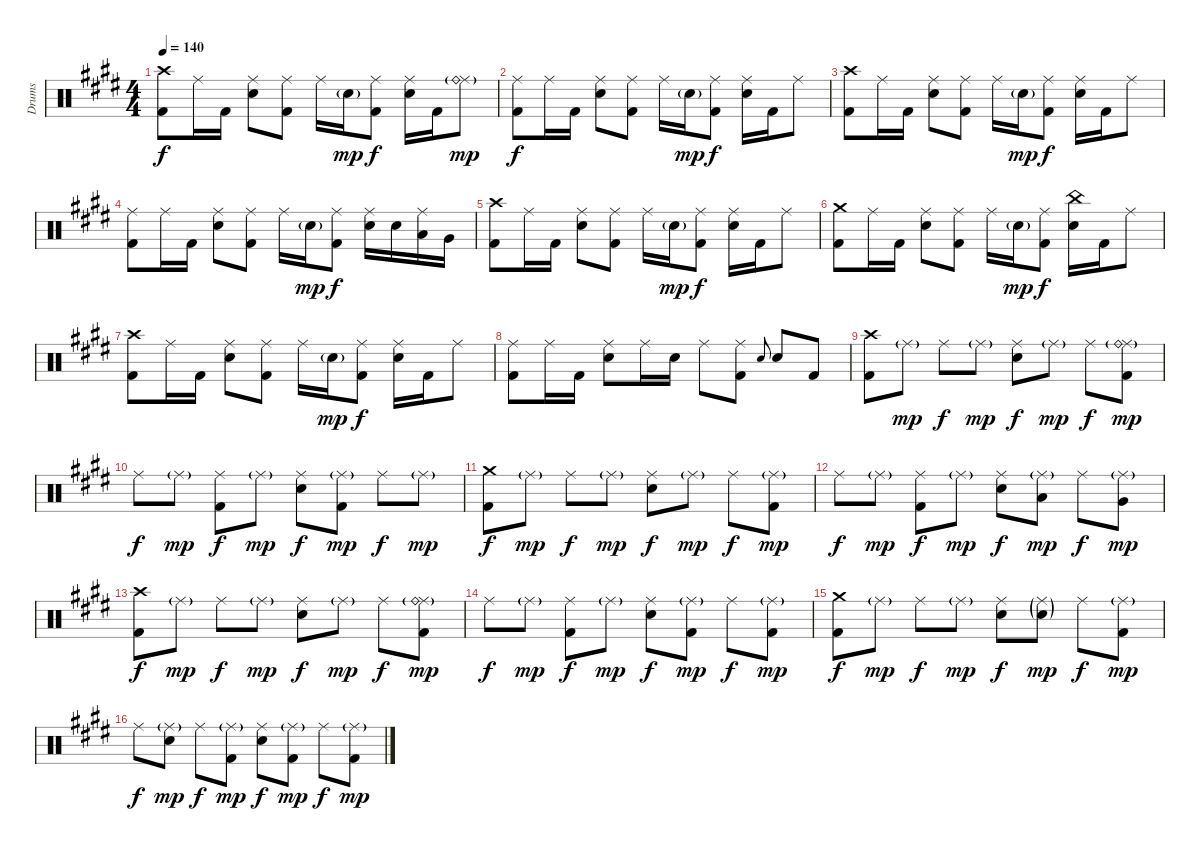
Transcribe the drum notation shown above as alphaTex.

\track ("Drums" "Drums") {instrument percussion}
\staff {score}
\articulation defaults
\ts (4 4)
\tempo 140
\clef neutral
\ks e
("Crash high (hit)" "Kick (hit) 2").8{dy f} "Ride (middle)".16 "Kick (hit) 2".16 ("Ride (middle)" "Snare (hit) 2").8 ("Ride (middle)" "Kick (hit) 2").8 "Ride (middle)".16 "Snare (hit) 2"{g}.16{dy mp} ("Ride (middle)" "Kick (hit) 2").8{dy f} ("Ride (middle)" "Snare (hit) 2").16 "Kick (hit) 2".16 ("Ride (middle)" "Ride (bell)"{g}).8{dy mp} |
("Ride (middle)" "Kick (hit) 2").8{dy f} "Ride (middle)".16 "Kick (hit) 2".16 ("Ride (middle)" "Snare (hit) 2").8 ("Ride (middle)" "Kick (hit) 2").8 "Ride (middle)".16 "Snare (hit) 2"{g}.16{dy mp} ("Ride (middle)" "Kick (hit) 2").8{dy f} ("Ride (middle)" "Snare (hit) 2").16 "Kick (hit) 2".16 "Ride (middle)".8 |
("Crash high (hit)" "Kick (hit) 2").8 "Ride (middle)".16 "Kick (hit) 2".16 ("Ride (middle)" "Snare (hit) 2").8 ("Ride (middle)" "Kick (hit) 2").8 "Ride (middle)".16 "Snare (hit) 2"{g}.16{dy mp} ("Ride (middle)" "Kick (hit) 2").8{dy f} ("Ride (middle)" "Snare (hit) 2").16 "Kick (hit) 2".16 "Ride (middle)".8 |
("Ride (middle)" "Kick (hit) 2").8 "Ride (middle)".16 "Kick (hit) 2".16 ("Ride (middle)" "Snare (hit) 2").8 ("Ride (middle)" "Kick (hit) 2").8 "Ride (middle)".16 "Snare (hit) 2"{g}.16{dy mp} ("Ride (middle)" "Kick (hit) 2").8{dy f} ("Ride (middle)" "Snare (hit) 2").16 "Snare (hit) 2".16 ("Ride (middle)" "Low Tom (hit)").16 "Very Low Tom (hit)".16 |
("Crash high (hit)" "Kick (hit) 2").8 "Ride (middle)".16 "Kick (hit) 2".16 ("Ride (middle)" "Snare (hit) 2").8 ("Ride (middle)" "Kick (hit) 2").8 "Ride (middle)".16 "Snare (hit) 2"{g}.16{dy mp} ("Ride (middle)" "Kick (hit) 2").8{dy f} ("Ride (middle)" "Snare (hit) 2").16 "Kick (hit) 2".16 "Ride (middle)".8 |
("Crash medium (hit)" "Kick (hit) 2").8 "Ride (middle)".16 "Kick (hit) 2".16 ("Ride (middle)" "Snare (hit) 2").8 ("Ride (middle)" "Kick (hit) 2").8 "Ride (middle)".16 "Snare (hit) 2"{g}.16{dy mp} ("Ride (middle)" "Kick (hit) 2").8{dy f} ("China (hit)" "Snare (hit) 2").16 "Kick (hit) 2".16 "Ride (middle)".8 |
("Crash high (hit)" "Kick (hit) 2").8 "Ride (middle)".16 "Kick (hit) 2".16 ("Ride (middle)" "Snare (hit) 2").8 ("Ride (middle)" "Kick (hit) 2").8 "Ride (middle)".16 "Snare (hit) 2"{g}.16{dy mp} ("Ride (middle)" "Kick (hit) 2").8{dy f} ("Ride (middle)" "Snare (hit) 2").16 "Kick (hit) 2".16 "Ride (middle)".8 |
("Ride (middle)" "Kick (hit) 2").8 "Ride (middle)".16 "Kick (hit) 2".16 ("Ride (middle)" "Snare (hit) 2").8 "Ride (middle)".16 "Snare (hit) 2".16 "Ride (middle)".8 ("Ride (middle)" "Kick (hit) 2").8 "Snare (hit) 2"{h}.8{gr onbeat} "Snare (hit) 2".8 "Kick (hit) 2".8 |
("Crash high (hit)" "Kick (hit) 2").8 "Ride (middle)"{g}.8{dy mp} "Ride (middle)".8{dy f} "Ride (middle)"{g}.8{dy mp} ("Ride (middle)" "Snare (hit) 2").8{dy f} "Ride (middle)"{g}.8{dy mp} "Ride (middle)".8{dy f} ("Ride (middle)"{g} "Ride (bell)"{g} "Kick (hit) 2").8{dy mp} |
"Ride (middle)".8{dy f} "Ride (middle)"{g}.8{dy mp} ("Ride (middle)" "Kick (hit) 2").8{dy f} "Ride (middle)"{g}.8{dy mp} ("Ride (middle)" "Snare (hit) 2").8{dy f} ("Ride (middle)"{g} "Kick (hit) 2").8{dy mp} "Ride (middle)".8{dy f} "Ride (middle)"{g}.8{dy mp} |
("Crash medium (hit)" "Kick (hit) 2").8{dy f} "Ride (middle)"{g}.8{dy mp} "Ride (middle)".8{dy f} "Ride (middle)"{g}.8{dy mp} ("Ride (middle)" "Snare (hit) 2").8{dy f} "Ride (middle)"{g}.8{dy mp} "Ride (middle)".8{dy f} ("Ride (middle)"{g} "Kick (hit) 2").8{dy mp} |
"Ride (middle)".8{dy f} "Ride (middle)"{g}.8{dy mp} ("Ride (middle)" "Kick (hit) 2").8{dy f} "Ride (middle)"{g}.8{dy mp} ("Ride (middle)" "Snare (hit) 2").8{dy f} ("Ride (middle)"{g} "Low Tom (hit)").8{dy mp} "Ride (middle)".8{dy f} ("Ride (middle)"{g} "Very Low Tom (hit)").8{dy mp} |
("Crash high (hit)" "Kick (hit) 2").8{dy f} "Ride (middle)"{g}.8{dy mp} "Ride (middle)".8{dy f} "Ride (middle)"{g}.8{dy mp} ("Ride (middle)" "Snare (hit) 2").8{dy f} "Ride (middle)"{g}.8{dy mp} "Ride (middle)".8{dy f} ("Ride (middle)"{g} "Ride (bell)"{g} "Kick (hit) 2").8{dy mp} |
"Ride (middle)".8{dy f} "Ride (middle)"{g}.8{dy mp} ("Ride (middle)" "Kick (hit) 2").8{dy f} "Ride (middle)"{g}.8{dy mp} ("Ride (middle)" "Snare (hit) 2").8{dy f} ("Ride (middle)"{g} "Kick (hit) 2").8{dy mp} "Ride (middle)".8{dy f} ("Ride (middle)"{g} "Kick (hit) 2").8{dy mp} |
("Crash medium (hit)" "Kick (hit) 2").8{dy f} "Ride (middle)"{g}.8{dy mp} "Ride (middle)".8{dy f} "Ride (middle)"{g}.8{dy mp} ("Ride (middle)" "Snare (hit) 2").8{dy f} ("Ride (middle)"{g} "Snare (hit) 2"{g}).8{dy mp} "Ride (middle)".8{dy f} ("Ride (middle)"{g} "Kick (hit) 2").8{dy mp} |
"Ride (middle)".8{dy f} ("Ride (middle)"{g} "Snare (hit) 2").8{dy mp} "Ride (middle)".8{dy f} ("Ride (middle)"{g} "Kick (hit) 2").8{dy mp} ("Ride (middle)" "Snare (hit) 2").8{dy f} ("Ride (middle)"{g} "Kick (hit) 2").8{dy mp} "Ride (middle)".8{dy f} ("Ride (middle)"{g} "Kick (hit) 2").8{dy mp}
